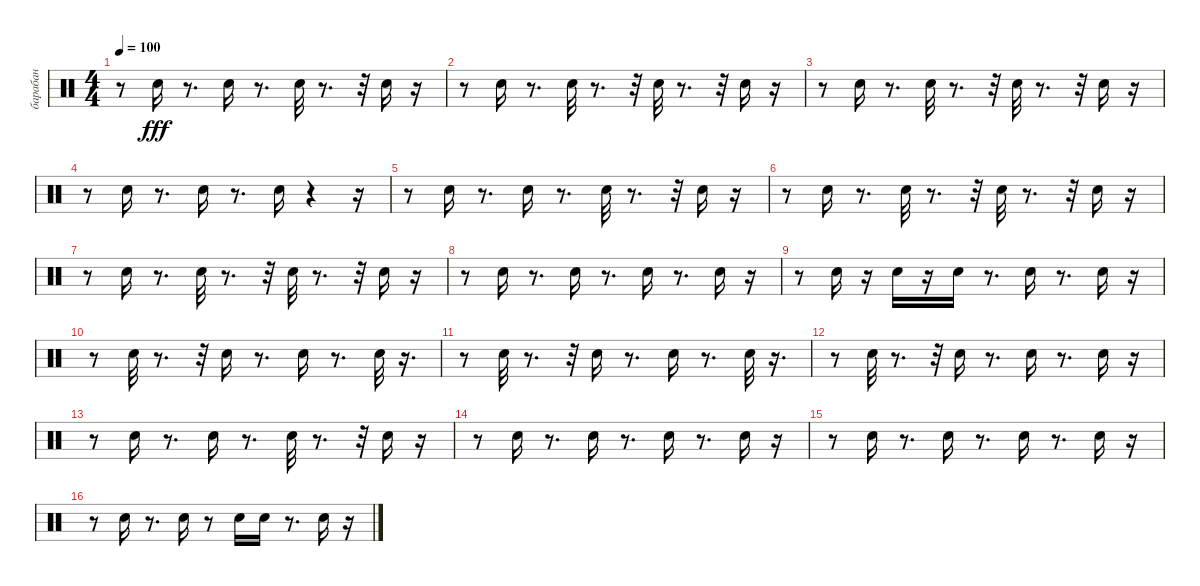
\track ("барабан" "барабан") {instrument percussion}
\staff {score}
\articulation defaults
\ts (4 4)
\tempo 100
\clef neutral
\ks c
r.8{dy fff} "Snare (hit) 2".16 r.8{d} "Snare (hit) 2".16 r.8{d} "Snare (hit) 2".32 r.8{d} r.32 "Snare (hit) 2".16 r.16 |
r.8 "Snare (hit) 2".16 r.8{d} "Snare (hit) 2".32 r.8{d} r.32 "Snare (hit) 2".32 r.8{d} r.32 "Snare (hit) 2".16 r.16 |
r.8 "Snare (hit) 2".16 r.8{d} "Snare (hit) 2".32 r.8{d} r.32 "Snare (hit) 2".32 r.8{d} r.32 "Snare (hit) 2".16 r.16 |
r.8 "Snare (hit) 2".16 r.8{d} "Snare (hit) 2".16 r.8{d} "Snare (hit) 2".16 r.4 r.16 |
r.8 "Snare (hit) 2".16 r.8{d} "Snare (hit) 2".16 r.8{d} "Snare (hit) 2".32 r.8{d} r.32 "Snare (hit) 2".16 r.16 |
r.8 "Snare (hit) 2".16 r.8{d} "Snare (hit) 2".32 r.8{d} r.32 "Snare (hit) 2".32 r.8{d} r.32 "Snare (hit) 2".16 r.16 |
r.8 "Snare (hit) 2".16 r.8{d} "Snare (hit) 2".32 r.8{d} r.32 "Snare (hit) 2".32 r.8{d} r.32 "Snare (hit) 2".16 r.16 |
r.8 "Snare (hit) 2".16 r.8{d} "Snare (hit) 2".16 r.8{d} "Snare (hit) 2".16 r.8{d} "Snare (hit) 2".16 r.16 |
r.8 "Snare (hit) 2".16 r.16 "Snare (hit) 2".16 r.16 "Snare (hit) 2".16 r.8{d} "Snare (hit) 2".16 r.8{d} "Snare (hit) 2".16 r.16 |
r.8 "Snare (hit) 2".32 r.8{d} r.32 "Snare (hit) 2".16 r.8{d} "Snare (hit) 2".16 r.8{d} "Snare (hit) 2".32 r.16{d} |
r.8 "Snare (hit) 2".32 r.8{d} r.32 "Snare (hit) 2".16 r.8{d} "Snare (hit) 2".16 r.8{d} "Snare (hit) 2".32 r.16{d} |
r.8 "Snare (hit) 2".32 r.8{d} r.32 "Snare (hit) 2".16 r.8{d} "Snare (hit) 2".16 r.8{d} "Snare (hit) 2".16 r.16 |
r.8 "Snare (hit) 2".16 r.8{d} "Snare (hit) 2".16 r.8{d} "Snare (hit) 2".32 r.8{d} r.32 "Snare (hit) 2".16 r.16 |
r.8 "Snare (hit) 2".16 r.8{d} "Snare (hit) 2".16 r.8{d} "Snare (hit) 2".16 r.8{d} "Snare (hit) 2".16 r.16 |
r.8 "Snare (hit) 2".16 r.8{d} "Snare (hit) 2".16 r.8{d} "Snare (hit) 2".16 r.8{d} "Snare (hit) 2".16 r.16 |
r.8 "Snare (hit) 2".16 r.8{d} "Snare (hit) 2".16 r.8 "Snare (hit) 2".16 "Snare (hit) 2".16 r.8{d} "Snare (hit) 2".16 r.16
